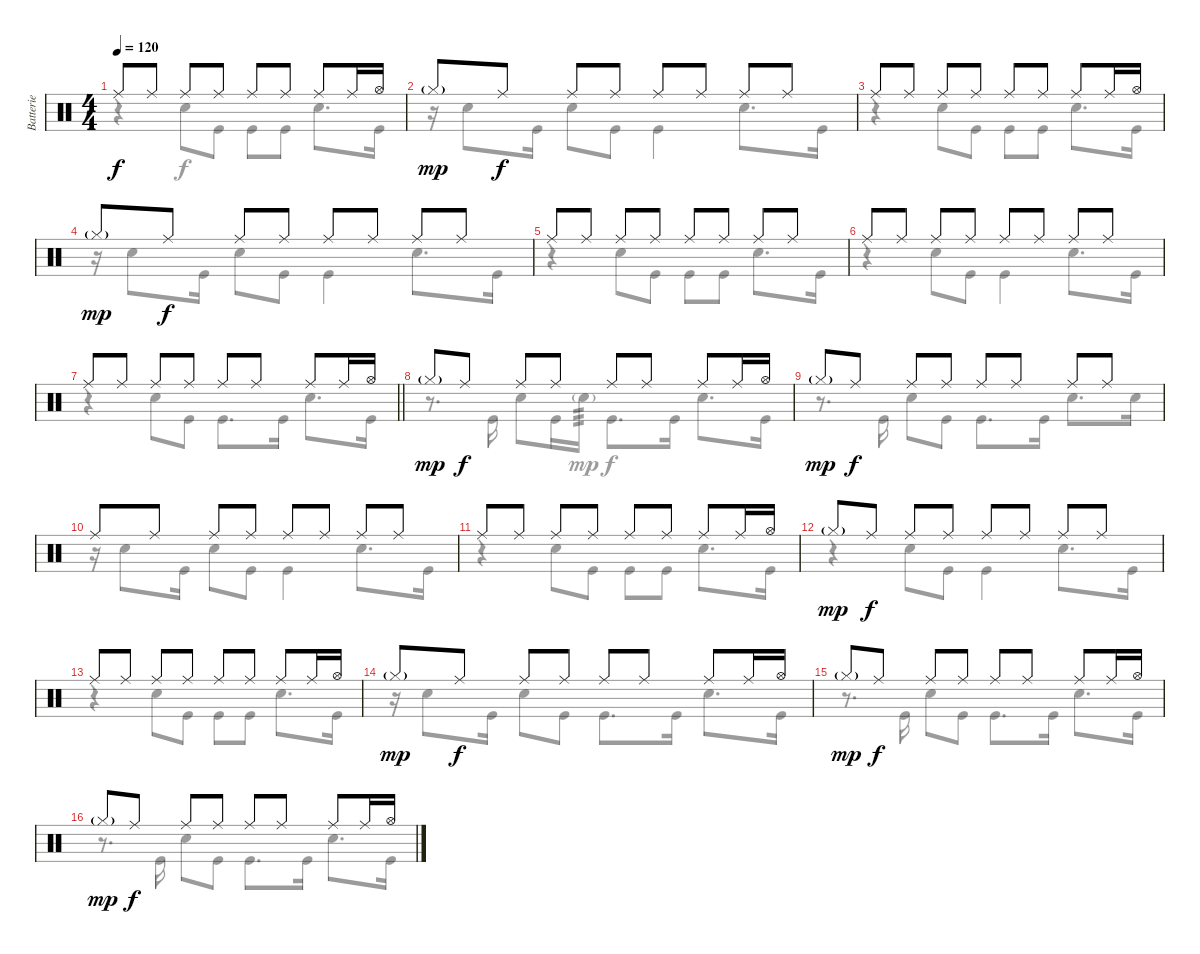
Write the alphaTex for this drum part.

\track ("Batterie" "Batterie") {instrument percussion}
\staff {score}
\articulation defaults
\voice
\ts (4 4)
\tempo 120
\clef neutral
\ks c "Ride (middle)".8{dy f} "Ride (middle)".8 "Ride (middle)".8 "Ride (middle)".8 "Ride (middle)".8 "Ride (middle)".8 "Ride (middle)".8 "Ride (middle)".16 "Hi-Hat (open)".16
|
"Hi-Hat (closed)"{g}.8{dy mp} "Ride (middle)".8{dy f} "Ride (middle)".8 "Ride (middle)".8 "Ride (middle)".8 "Ride (middle)".8 "Ride (middle)".8 "Ride (middle)".8 |
"Ride (middle)".8 "Ride (middle)".8 "Ride (middle)".8 "Ride (middle)".8 "Ride (middle)".8 "Ride (middle)".8 "Ride (middle)".8 "Ride (middle)".16 "Hi-Hat (open)".16 |
"Hi-Hat (closed)"{g}.8{dy mp} "Ride (middle)".8{dy f} "Ride (middle)".8 "Ride (middle)".8 "Ride (middle)".8 "Ride (middle)".8 "Ride (middle)".8 "Ride (middle)".8 |
"Ride (middle)".8 "Ride (middle)".8 "Ride (middle)".8 "Ride (middle)".8 "Ride (middle)".8 "Ride (middle)".8 "Ride (middle)".8 "Ride (middle)".8 |
"Ride (middle)".8 "Ride (middle)".8 "Ride (middle)".8 "Ride (middle)".8 "Ride (middle)".8 "Ride (middle)".8 "Ride (middle)".8 "Ride (middle)".8 |
\barLineRight lightlight "Ride (middle)".8 "Ride (middle)".8 "Ride (middle)".8 "Ride (middle)".8 "Ride (middle)".8 "Ride (middle)".8 "Ride (middle)".8 "Ride (middle)".16 "Hi-Hat (open)".16
|
"Hi-Hat (closed)"{g}.8{dy mp} "Ride (middle)".8{dy f} "Ride (middle)".8 "Ride (middle)".8 "Ride (middle)".8 "Ride (middle)".8 "Ride (middle)".8 "Ride (middle)".16 "Hi-Hat (open)".16 |
"Hi-Hat (closed)"{g}.8{dy mp} "Ride (middle)".8{dy f} "Ride (middle)".8 "Ride (middle)".8 "Ride (middle)".8 "Ride (middle)".8 "Ride (middle)".8 "Ride (middle)".8 |
"Ride (middle)".8 "Ride (middle)".8 "Ride (middle)".8 "Ride (middle)".8 "Ride (middle)".8 "Ride (middle)".8 "Ride (middle)".8 "Ride (middle)".8 |
"Ride (middle)".8 "Ride (middle)".8 "Ride (middle)".8 "Ride (middle)".8 "Ride (middle)".8 "Ride (middle)".8 "Ride (middle)".8 "Ride (middle)".16 "Hi-Hat (open)".16 |
"Hi-Hat (closed)"{g}.8{dy mp} "Ride (middle)".8{dy f} "Ride (middle)".8 "Ride (middle)".8 "Ride (middle)".8 "Ride (middle)".8 "Ride (middle)".8 "Ride (middle)".8 |
"Ride (middle)".8 "Ride (middle)".8 "Ride (middle)".8 "Ride (middle)".8 "Ride (middle)".8 "Ride (middle)".8 "Ride (middle)".8 "Ride (middle)".16 "Hi-Hat (open)".16 |
"Hi-Hat (closed)"{g}.8{dy mp} "Ride (middle)".8{dy f} "Ride (middle)".8 "Ride (middle)".8 "Ride (middle)".8 "Ride (middle)".8 "Ride (middle)".8 "Ride (middle)".16 "Hi-Hat (open)".16 |
"Hi-Hat (closed)"{g}.8{dy mp} "Ride (middle)".8{dy f} "Ride (middle)".8 "Ride (middle)".8 "Ride (middle)".8 "Ride (middle)".8 "Ride (middle)".8 "Ride (middle)".16 "Hi-Hat (open)".16 |
"Hi-Hat (closed)"{g}.8{dy mp} "Ride (middle)".8{dy f} "Ride (middle)".8 "Ride (middle)".8 "Ride (middle)".8 "Ride (middle)".8 "Ride (middle)".8 "Ride (middle)".16 "Hi-Hat (open)".16
\voice
\clef neutral
\ottava regular
\simile none
\ks c
r.4{dy f} "Snare (hit) 2".8 "Kick (hit)".8 "Kick (hit)".8 "Kick (hit)".8 "Snare (hit) 2".8{d} "Kick (hit)".16 |
r.16 "Snare (hit) 2".8 "Kick (hit)".16 "Snare (hit) 2".8 "Kick (hit)".8 "Kick (hit)".4 "Snare (hit) 2".8{d} "Kick (hit)".16 |
r.4 "Snare (hit) 2".8 "Kick (hit)".8 "Kick (hit)".8 "Kick (hit)".8 "Snare (hit) 2".8{d} "Kick (hit)".16 |
r.16 "Snare (hit) 2".8 "Kick (hit)".16 "Snare (hit) 2".8 "Kick (hit)".8 "Kick (hit)".4 "Snare (hit) 2".8{d} "Kick (hit)".16 |
r.4 "Snare (hit) 2".8 "Kick (hit)".8 "Kick (hit)".8 "Kick (hit)".8 "Snare (hit) 2".8{d} "Kick (hit)".16 |
r.4 "Snare (hit) 2".8 "Kick (hit)".8 "Kick (hit)".4 "Snare (hit) 2".8{d} "Kick (hit)".16 |
\barLineRight lightlight
r.4 "Snare (hit) 2".8 "Kick (hit)".8 "Kick (hit)".8{d} "Kick (hit)".16 "Snare (hit) 2".8{d} "Kick (hit)".16 |
r.8{d} "Kick (hit)".16 "Snare (hit) 2".8 "Kick (hit)".16 "Snare (hit) 2"{g}.16{tp 3 dy mp} "Kick (hit)".8{d dy f} "Kick (hit)".16 "Snare (hit) 2".8{d} "Kick (hit)".16 |
r.8{d} "Kick (hit)".16 "Snare (hit) 2".8 "Kick (hit)".8 "Kick (hit)".8{d} "Kick (hit)".16 "Snare (hit) 2".8{d} "Snare (hit) 2".16 |
r.16 "Snare (hit) 2".8 "Kick (hit)".16 "Snare (hit) 2".8 "Kick (hit)".8 "Kick (hit)".4 "Snare (hit) 2".8{d} "Kick (hit)".16 |
r.4 "Snare (hit) 2".8 "Kick (hit)".8 "Kick (hit)".8 "Kick (hit)".8 "Snare (hit) 2".8{d} "Kick (hit)".16 |
r.4 "Snare (hit) 2".8 "Kick (hit)".8 "Kick (hit)".4 "Snare (hit) 2".8{d} "Kick (hit)".16 |
r.4 "Snare (hit) 2".8 "Kick (hit)".8 "Kick (hit)".8 "Kick (hit)".8 "Snare (hit) 2".8{d} "Kick (hit)".16 |
r.16 "Snare (hit) 2".8 "Kick (hit)".16 "Snare (hit) 2".8 "Kick (hit)".8 "Kick (hit)".8{d} "Kick (hit)".16 "Snare (hit) 2".8{d} "Kick (hit)".16 |
r.8{d} "Kick (hit)".16 "Snare (hit) 2".8 "Kick (hit)".8 "Kick (hit)".8{d} "Kick (hit)".16 "Snare (hit) 2".8{d} "Kick (hit)".16 |
r.8{d} "Kick (hit)".16 "Snare (hit) 2".8 "Kick (hit)".8 "Kick (hit)".8{d} "Kick (hit)".16 "Snare (hit) 2".8{d} "Kick (hit)".16
